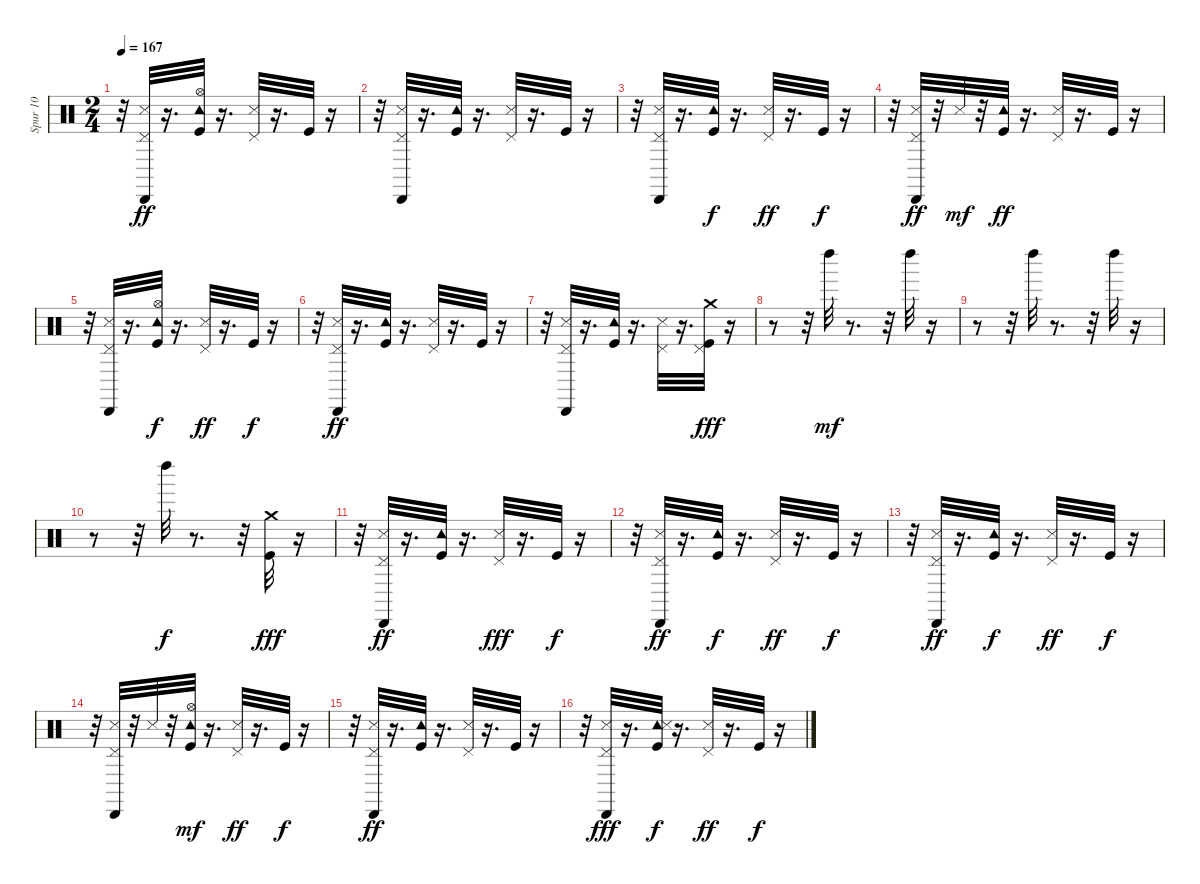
\track ("Spur 10" "Spur 10") {instrument percussion}
\staff {score}
\articulation defaults
\ts (2 4)
\tempo 167
\clef neutral
\ks c
r.32{dy f} ("Cabasa (hit)" "Pedal Hi-Hat (hit)" "Snare (side stick) 3").32{dy ff} r.16{d} ("Hi-Hat (open)" "Kick (hit)" "Tambourine (hit)").32 r.16{d} ("Snare (side stick) 3" "Pedal Hi-Hat (hit)").32 r.16{d} "Kick (hit)".32 r.16 |
r.32 ("Pedal Hi-Hat (hit)" "Cabasa (hit)" "Snare (side stick) 3").32 r.16{d} ("Kick (hit)" "Tambourine (hit)").32 r.16{d} ("Snare (side stick) 3" "Pedal Hi-Hat (hit)").32 r.16{d} "Kick (hit)".32 r.16 |
r.32 ("Snare (side stick) 3" "Pedal Hi-Hat (hit)" "Cabasa (hit)").32 r.16{d} ("Tambourine (hit)" "Kick (hit)").32{dy f} r.16{d} ("Snare (side stick) 3" "Pedal Hi-Hat (hit)").32{dy ff} r.16{d} "Kick (hit)".32{dy f} r.16 |
r.32 ("Cabasa (hit)" "Pedal Hi-Hat (hit)" "Snare (side stick) 3").32{dy ff} r.32 "Snare (side stick) 3".32{dy mf} r.32 ("Kick (hit)" "Tambourine (hit)").32{dy ff} r.16{d} ("Snare (side stick) 3" "Pedal Hi-Hat (hit)").32 r.16{d} "Kick (hit)".32 r.16 |
r.32 ("Snare (side stick) 3" "Pedal Hi-Hat (hit)" "Cabasa (hit)").32 r.16{d} ("Kick (hit)" "Hi-Hat (open)" "Tambourine (hit)").32{dy f} r.16{d} ("Snare (side stick) 3" "Pedal Hi-Hat (hit)").32{dy ff} r.16{d} "Kick (hit)".32{dy f} r.16 |
r.32 ("Pedal Hi-Hat (hit)" "Cabasa (hit)" "Snare (side stick) 3").32{dy ff} r.16{d} ("Kick (hit)" "Tambourine (hit)").32 r.16{d} ("Snare (side stick) 3" "Pedal Hi-Hat (hit)").32 r.16{d} "Kick (hit)".32 r.16 |
r.32 ("Cabasa (hit)" "Pedal Hi-Hat (hit)" "Snare (side stick) 3").32 r.16{d} ("Kick (hit)" "Tambourine (hit)").32 r.16{d} ("Pedal Hi-Hat (hit)" "Snare (side stick) 3").32 r.16{d} ("Crash medium (hit)" "Kick (hit)" "Pedal Hi-Hat (hit)").32{dy fff} r.16 |
r.8 r.32 "Left Maraca (hit)".32{dy mf} r.8{d} r.32 "Left Maraca (hit)".32 r.16 |
r.8 r.32 "Left Maraca (hit)".32 r.8{d} r.32 "Left Maraca (hit)".32 r.16 |
r.8 r.32 "Left Maraca (hit)".32{dy f} r.8{d} r.32 ("Crash medium (hit)" "Kick (hit)").32{dy fff} r.16 |
r.32 ("Snare (side stick) 3" "Pedal Hi-Hat (hit)" "Cabasa (hit)").32{dy ff} r.16{d} ("Kick (hit)" "Tambourine (hit)").32 r.16{d} ("Snare (side stick) 3" "Pedal Hi-Hat (hit)").32{dy fff} r.16{d} "Kick (hit)".32{dy f} r.16 |
r.32 ("Snare (side stick) 3" "Pedal Hi-Hat (hit)" "Cabasa (hit)").32{dy ff} r.16{d} ("Tambourine (hit)" "Kick (hit)").32{dy f} r.16{d} ("Snare (side stick) 3" "Pedal Hi-Hat (hit)").32{dy ff} r.16{d} "Kick (hit)".32{dy f} r.16 |
r.32 ("Snare (side stick) 3" "Pedal Hi-Hat (hit)" "Cabasa (hit)").32{dy ff} r.16{d} ("Tambourine (hit)" "Kick (hit)").32{dy f} r.16{d} ("Snare (side stick) 3" "Pedal Hi-Hat (hit)").32{dy ff} r.16{d} "Kick (hit)".32{dy f} r.16 |
r.32 ("Pedal Hi-Hat (hit)" "Cabasa (hit)" "Snare (side stick) 3").32 r.32 "Snare (side stick) 3".32 r.32 ("Hi-Hat (open)" "Kick (hit)" "Tambourine (hit)").32{dy mf} r.16{d} ("Pedal Hi-Hat (hit)" "Snare (side stick) 3").32{dy ff} r.16{d} "Kick (hit)".32{dy f} r.16 |
r.32 ("Cabasa (hit)" "Snare (side stick) 3" "Pedal Hi-Hat (hit)").32{dy ff} r.16{d} ("Kick (hit)" "Tambourine (hit)").32 r.16{d} ("Pedal Hi-Hat (hit)" "Snare (side stick) 3").32 r.16{d} "Kick (hit)".32 r.16 |
r.32 ("Pedal Hi-Hat (hit)" "Snare (side stick) 3" "Cabasa (hit)").32{dy fff} r.16{d} ("Kick (hit)" "Tambourine (hit)" "Snare (side stick) 3").32{dy f} r.16{d} ("Snare (side stick) 3" "Pedal Hi-Hat (hit)").32{dy ff} r.16{d} "Kick (hit)".32{dy f} r.16
